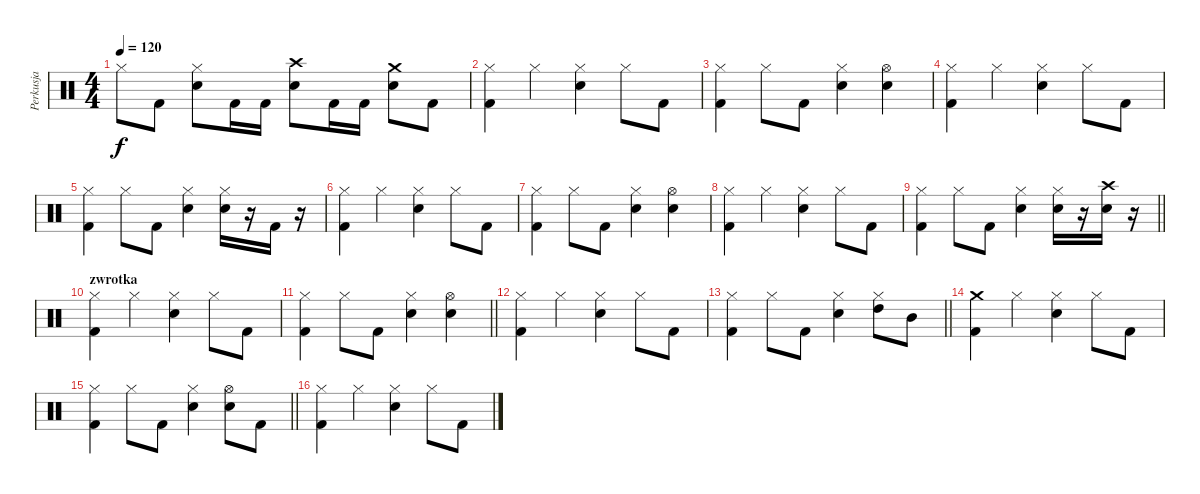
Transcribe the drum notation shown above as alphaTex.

\track ("Perkusja" "Perkusja") {instrument percussion}
\staff {score}
\articulation defaults
\ts (4 4)
\tempo 120
\clef neutral
\ks c "Hi-Hat (closed)".8{dy f} "Kick (hit) 2".8
("Hi-Hat (closed)" "Snare (hit) 2").8 "Kick (hit) 2".16 "Kick (hit) 2".16 ("Crash high (hit)" "Snare (hit) 2").8 "Kick (hit) 2".16 "Kick (hit) 2".16 ("Crash medium (hit)" "Snare (hit) 2").8 "Kick (hit) 2".8 |
("Hi-Hat (closed)" "Kick (hit) 2").4 "Hi-Hat (closed)".4 ("Hi-Hat (closed)" "Snare (hit) 2").4 "Hi-Hat (closed)".8 "Kick (hit) 2".8 |
("Hi-Hat (closed)" "Kick (hit) 2").4 "Hi-Hat (closed)".8 "Kick (hit) 2".8 ("Hi-Hat (closed)" "Snare (hit) 2").4 ("Hi-Hat (open)" "Snare (hit) 2").4 |
("Hi-Hat (closed)" "Kick (hit) 2").4 "Hi-Hat (closed)".4 ("Hi-Hat (closed)" "Snare (hit) 2").4 "Hi-Hat (closed)".8 "Kick (hit) 2".8 |
("Hi-Hat (closed)" "Kick (hit) 2").4 "Hi-Hat (closed)".8 "Kick (hit) 2".8 ("Hi-Hat (closed)" "Snare (hit) 2").4 ("Hi-Hat (closed)" "Snare (hit) 2").16 r.16 "Kick (hit) 2".16 r.16 |
("Hi-Hat (closed)" "Kick (hit) 2").4 "Hi-Hat (closed)".4 ("Hi-Hat (closed)" "Snare (hit) 2").4 "Hi-Hat (closed)".8 "Kick (hit) 2".8 |
("Hi-Hat (closed)" "Kick (hit) 2").4 "Hi-Hat (closed)".8 "Kick (hit) 2".8 ("Hi-Hat (closed)" "Snare (hit) 2").4 ("Hi-Hat (open)" "Snare (hit) 2").4 |
("Hi-Hat (closed)" "Kick (hit) 2").4 "Hi-Hat (closed)".4 ("Hi-Hat (closed)" "Snare (hit) 2").4 "Hi-Hat (closed)".8 "Kick (hit) 2".8 |
\barLineRight lightlight
("Hi-Hat (closed)" "Kick (hit) 2").4 "Hi-Hat (closed)".8 "Kick (hit) 2".8 ("Hi-Hat (closed)" "Snare (hit) 2").4 ("Hi-Hat (closed)" "Snare (hit) 2").16 r.16 ("Crash high (hit)" "Snare (hit) 2").16 r.16 |
\section ("" "zwrotka")
("Hi-Hat (closed)" "Kick (hit) 2").4 "Hi-Hat (closed)".4 ("Hi-Hat (closed)" "Snare (hit) 2").4 "Hi-Hat (closed)".8 "Kick (hit) 2".8 |
\barLineRight lightlight
("Hi-Hat (closed)" "Kick (hit) 2").4 "Hi-Hat (closed)".8 "Kick (hit) 2".8 ("Hi-Hat (closed)" "Snare (hit) 2").4 ("Hi-Hat (open)" "Snare (hit) 2").4 |
("Hi-Hat (closed)" "Kick (hit) 2").4 "Hi-Hat (closed)".4 ("Hi-Hat (closed)" "Snare (hit) 2").4 "Hi-Hat (closed)".8 "Kick (hit) 2".8 |
\barLineRight lightlight
("Hi-Hat (closed)" "Kick (hit) 2").4 "Hi-Hat (closed)".8 "Kick (hit) 2".8 ("Hi-Hat (closed)" "Snare (hit) 2").4 ("Hi-Hat (closed)" "High Tom (hit)").8 "Mid Tom (hit)".8 |
("Crash medium (hit)" "Kick (hit) 2").4 "Hi-Hat (closed)".4 ("Hi-Hat (closed)" "Snare (hit) 2").4 "Hi-Hat (closed)".8 "Kick (hit) 2".8 |
\barLineRight lightlight
("Hi-Hat (closed)" "Kick (hit) 2").4 "Hi-Hat (closed)".8 "Kick (hit) 2".8 ("Hi-Hat (closed)" "Snare (hit) 2").4 ("Hi-Hat (open)" "Snare (hit) 2").8 "Kick (hit) 2".8 |
("Hi-Hat (closed)" "Kick (hit) 2").4 "Hi-Hat (closed)".4 ("Hi-Hat (closed)" "Snare (hit) 2").4 "Hi-Hat (closed)".8 "Kick (hit) 2".8
